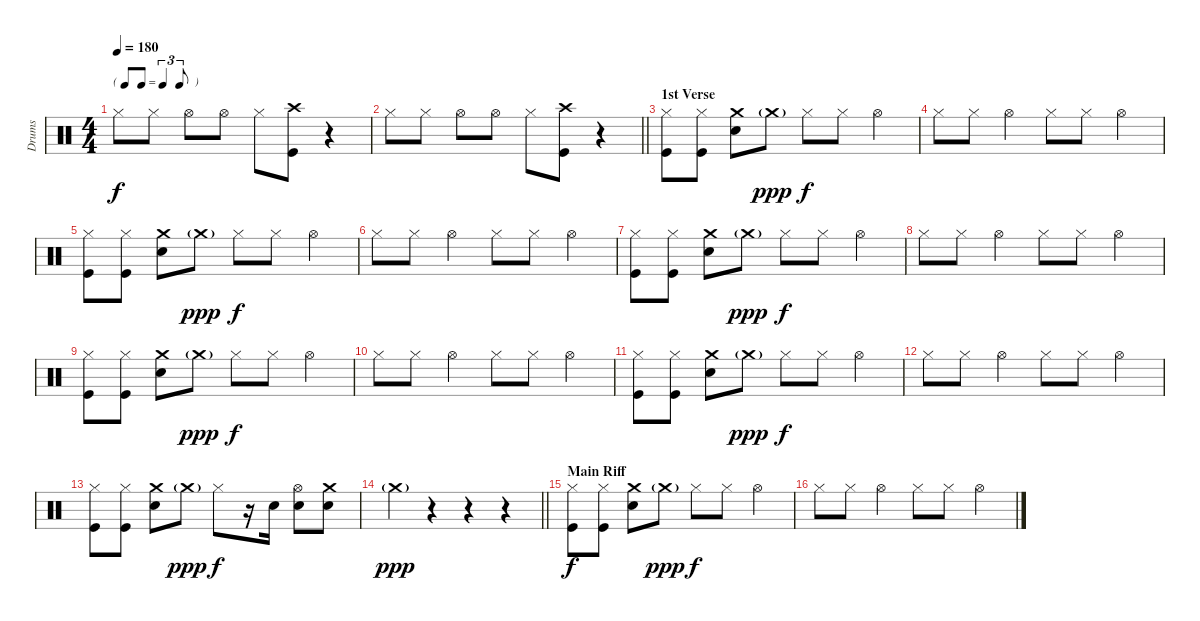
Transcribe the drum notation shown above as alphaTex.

\track ("Drums" "Drums") {instrument percussion}
\staff {score}
\articulation defaults
\ts (4 4)
\tf triplet8th
\tempo 180
\clef neutral
\ks c "Hi-Hat (closed)".8{dy f} "Hi-Hat (closed)".8 "Hi-Hat (open)".8 "Hi-Hat (open)".8 "Hi-Hat (closed)".8
("Crash high (hit)" "Kick (hit)").8 r.4 |
\barLineRight lightlight "Hi-Hat (closed)".8 "Hi-Hat (closed)".8 "Hi-Hat (open)".8 "Hi-Hat (open)".8 "Hi-Hat (closed)".8
("Crash high (hit)" "Kick (hit)").8 r.4 |
\section ("" "1st Verse")
("Hi-Hat (closed)" "Kick (hit)").8 ("Hi-Hat (closed)" "Kick (hit)").8 ("Crash medium (hit)" "Electric Snare (hit)").8 "Crash medium (hit)"{g}.8{dy ppp} "Hi-Hat (closed)".8{dy f} "Hi-Hat (closed)".8 "Hi-Hat (open)".4 |
"Hi-Hat (closed)".8 "Hi-Hat (closed)".8 "Hi-Hat (open)".4 "Hi-Hat (closed)".8 "Hi-Hat (closed)".8 "Hi-Hat (open)".4 |
("Hi-Hat (closed)" "Kick (hit)").8 ("Hi-Hat (closed)" "Kick (hit)").8 ("Crash medium (hit)" "Electric Snare (hit)").8 "Crash medium (hit)"{g}.8{dy ppp} "Hi-Hat (closed)".8{dy f} "Hi-Hat (closed)".8 "Hi-Hat (open)".4 |
"Hi-Hat (closed)".8 "Hi-Hat (closed)".8 "Hi-Hat (open)".4 "Hi-Hat (closed)".8 "Hi-Hat (closed)".8 "Hi-Hat (open)".4 |
("Hi-Hat (closed)" "Kick (hit)").8 ("Hi-Hat (closed)" "Kick (hit)").8 ("Crash medium (hit)" "Electric Snare (hit)").8 "Crash medium (hit)"{g}.8{dy ppp} "Hi-Hat (closed)".8{dy f} "Hi-Hat (closed)".8 "Hi-Hat (open)".4 |
"Hi-Hat (closed)".8 "Hi-Hat (closed)".8 "Hi-Hat (open)".4 "Hi-Hat (closed)".8 "Hi-Hat (closed)".8 "Hi-Hat (open)".4 |
("Hi-Hat (closed)" "Kick (hit)").8 ("Hi-Hat (closed)" "Kick (hit)").8 ("Crash medium (hit)" "Electric Snare (hit)").8 "Crash medium (hit)"{g}.8{dy ppp} "Hi-Hat (closed)".8{dy f} "Hi-Hat (closed)".8 "Hi-Hat (open)".4 |
"Hi-Hat (closed)".8 "Hi-Hat (closed)".8 "Hi-Hat (open)".4 "Hi-Hat (closed)".8 "Hi-Hat (closed)".8 "Hi-Hat (open)".4 |
("Hi-Hat (closed)" "Kick (hit)").8 ("Hi-Hat (closed)" "Kick (hit)").8 ("Crash medium (hit)" "Electric Snare (hit)").8 "Crash medium (hit)"{g}.8{dy ppp} "Hi-Hat (closed)".8{dy f} "Hi-Hat (closed)".8 "Hi-Hat (open)".4 |
"Hi-Hat (closed)".8 "Hi-Hat (closed)".8 "Hi-Hat (open)".4 "Hi-Hat (closed)".8 "Hi-Hat (closed)".8 "Hi-Hat (open)".4 |
("Hi-Hat (closed)" "Kick (hit)").8 ("Hi-Hat (closed)" "Kick (hit)").8 ("Crash medium (hit)" "Electric Snare (hit)").8 "Crash medium (hit)"{g}.8{dy ppp} "Hi-Hat (closed)".8{dy f} r.16 "Electric Snare (hit)".16 ("Hi-Hat (open)" "Electric Snare (hit)").8 ("Crash medium (hit)" "Electric Snare (hit)").8 |
\barLineRight lightlight "Crash medium (hit)"{g}.4{dy ppp}
r.4 r.4 r.4 |
\section ("" "Main Riff")
("Hi-Hat (closed)" "Kick (hit)").8{dy f} ("Hi-Hat (closed)" "Kick (hit)").8 ("Crash medium (hit)" "Electric Snare (hit)").8 "Crash medium (hit)"{g}.8{dy ppp} "Hi-Hat (closed)".8{dy f} "Hi-Hat (closed)".8 "Hi-Hat (open)".4 |
"Hi-Hat (closed)".8 "Hi-Hat (closed)".8 "Hi-Hat (open)".4 "Hi-Hat (closed)".8 "Hi-Hat (closed)".8 "Hi-Hat (open)".4
